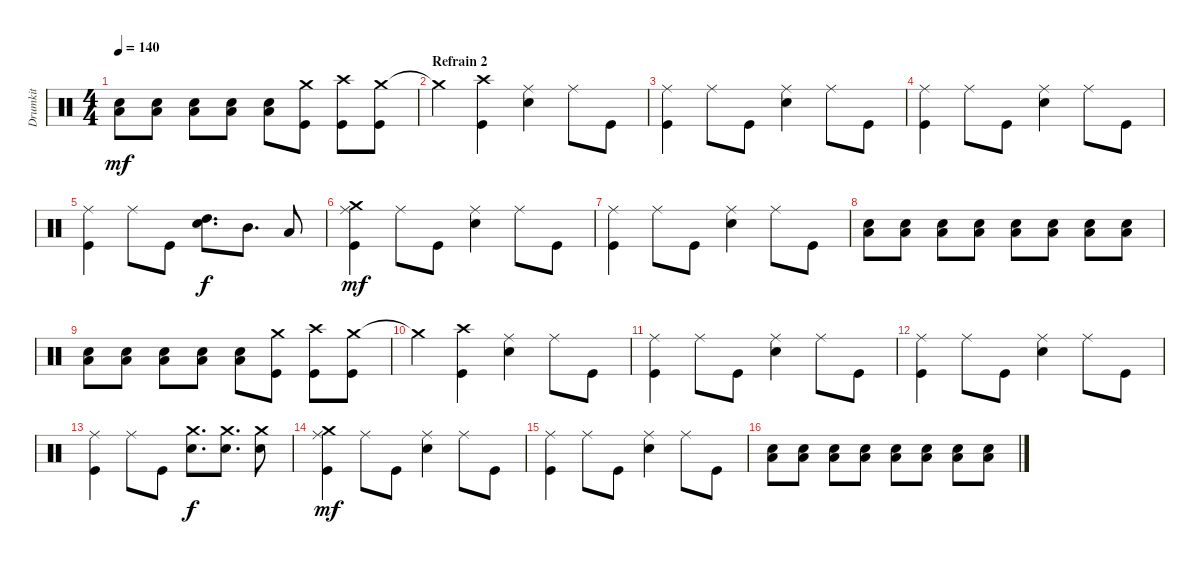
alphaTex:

\track ("Drumkit" "Drumkit") {instrument percussion}
\staff {score}
\articulation defaults
\ts (4 4)
\tempo 140
\clef neutral
\ks c
("Snare (hit) 2" "Low Tom (hit)").8{dy mf} ("Snare (hit) 2" "Low Tom (hit)").8 ("Snare (hit) 2" "Low Tom (hit)").8 ("Snare (hit) 2" "Low Tom (hit)").8 ("Snare (hit) 2" "Low Tom (hit)").8 ("Crash medium (hit)" "Kick (hit)").8 ("Crash high (hit)" "Kick (hit)").8 ("Crash medium (hit)" "Kick (hit)").8 |
\section ("" "Refrain 2")
"Crash medium (hit)"{t}.4 ("Crash high (hit)" "Kick (hit)").4 ("Ride (middle)" "Snare (hit) 2").4 "Ride (middle)".8 "Kick (hit)".8 |
("Ride (middle)" "Kick (hit)").4 "Ride (middle)".8 "Kick (hit)".8 ("Ride (middle)" "Snare (hit) 2").4 "Ride (middle)".8 "Kick (hit)".8 |
("Ride (middle)" "Kick (hit)").4 "Ride (middle)".8 "Kick (hit)".8 ("Ride (middle)" "Snare (hit) 2").4 "Ride (middle)".8 "Kick (hit)".8 |
("Ride (middle)" "Kick (hit)").4 "Ride (middle)".8 "Kick (hit)".8 ("Snare (hit) 2" "High Tom (hit)").8{d dy f} "Mid Tom (hit)".8{d} "Low Tom (hit)".8 |
("Ride (middle)" "Crash medium (hit)" "Kick (hit)").4{dy mf} "Ride (middle)".8 "Kick (hit)".8 ("Ride (middle)" "Snare (hit) 2").4 "Ride (middle)".8 "Kick (hit)".8 |
("Ride (middle)" "Kick (hit)").4 "Ride (middle)".8 "Kick (hit)".8 ("Ride (middle)" "Snare (hit) 2").4 "Ride (middle)".8 "Kick (hit)".8 |
("Snare (hit) 2" "Low Tom (hit)").8 ("Snare (hit) 2" "Low Tom (hit)").8 ("Snare (hit) 2" "Low Tom (hit)").8 ("Snare (hit) 2" "Low Tom (hit)").8 ("Snare (hit) 2" "Low Tom (hit)").8 ("Snare (hit) 2" "Low Tom (hit)").8 ("Snare (hit) 2" "Low Tom (hit)").8 ("Snare (hit) 2" "Low Tom (hit)").8 |
("Snare (hit) 2" "Low Tom (hit)").8 ("Snare (hit) 2" "Low Tom (hit)").8 ("Snare (hit) 2" "Low Tom (hit)").8 ("Snare (hit) 2" "Low Tom (hit)").8 ("Snare (hit) 2" "Low Tom (hit)").8 ("Crash medium (hit)" "Kick (hit)").8 ("Crash high (hit)" "Kick (hit)").8 ("Crash medium (hit)" "Kick (hit)").8 |
"Crash medium (hit)"{t}.4 ("Crash high (hit)" "Kick (hit)").4 ("Ride (middle)" "Snare (hit) 2").4 "Ride (middle)".8 "Kick (hit)".8 |
("Ride (middle)" "Kick (hit)").4 "Ride (middle)".8 "Kick (hit)".8 ("Ride (middle)" "Snare (hit) 2").4 "Ride (middle)".8 "Kick (hit)".8 |
("Ride (middle)" "Kick (hit)").4 "Ride (middle)".8 "Kick (hit)".8 ("Ride (middle)" "Snare (hit) 2").4 "Ride (middle)".8 "Kick (hit)".8 |
("Ride (middle)" "Kick (hit)").4 "Ride (middle)".8 "Kick (hit)".8 ("Crash medium (hit)" "Snare (hit) 2").8{d dy f} ("Crash medium (hit)" "Snare (hit) 2").8{d} ("Crash medium (hit)" "Snare (hit) 2").8 |
("Ride (middle)" "Crash medium (hit)" "Kick (hit)").4{dy mf} "Ride (middle)".8 "Kick (hit)".8 ("Ride (middle)" "Snare (hit) 2").4 "Ride (middle)".8 "Kick (hit)".8 |
("Ride (middle)" "Kick (hit)").4 "Ride (middle)".8 "Kick (hit)".8 ("Ride (middle)" "Snare (hit) 2").4 "Ride (middle)".8 "Kick (hit)".8 |
("Snare (hit) 2" "Low Tom (hit)").8 ("Snare (hit) 2" "Low Tom (hit)").8 ("Snare (hit) 2" "Low Tom (hit)").8 ("Snare (hit) 2" "Low Tom (hit)").8 ("Snare (hit) 2" "Low Tom (hit)").8 ("Snare (hit) 2" "Low Tom (hit)").8 ("Snare (hit) 2" "Low Tom (hit)").8 ("Snare (hit) 2" "Low Tom (hit)").8
